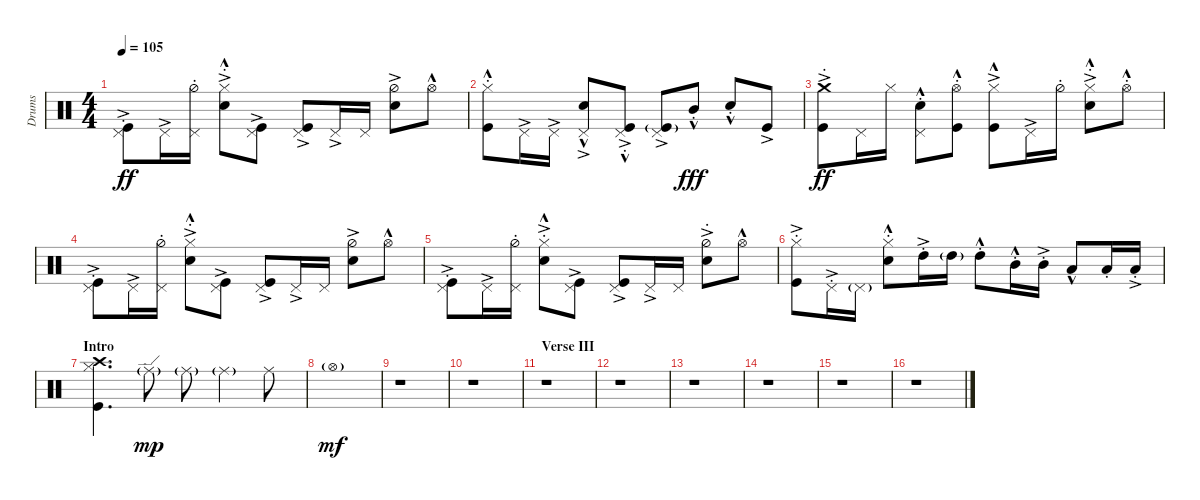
\defaultSystemsLayout 4
\otherSystemsTrackNameOrientation horizontal
\chordDiagramsInScore
\track ("Drumkit" "Drums") {instrument percussion}
\staff {score}
\articulation defaults
\ts (4 4)
\tempo 105
\clef neutral
\scale
0.5
\ks c
("Kick (hit)"{ac st} "Pedal Hi-Hat (hit)"{ac}).8{dy ff} "Pedal Hi-Hat (hit)"{ac}.16 ("Pedal Hi-Hat (hit)" "Hi-Hat (half)"{st}).16 ("Snare (hit) 2"{ac} "Hi-Hat (closed)"{hac st}).8 ("Kick (hit)"{ac} "Pedal Hi-Hat (hit)").8 ("Kick (hit)"{ac} "Pedal Hi-Hat (hit)").8 "Pedal Hi-Hat (hit)"{ac}.16 "Pedal Hi-Hat (hit)".16 ("Hi-Hat (half)"{ac} "Snare (hit) 2"{ac}).8 "Hi-Hat (open)"{hac}.8 |
\scale
0.5 ("Kick (hit)"{hac st} "Hi-Hat (closed)"{hac}).8 "Pedal Hi-Hat (hit)"{ac}.16 "Pedal Hi-Hat (hit)"{ac}.16 ("Pedal Hi-Hat (hit)"{hac} "Snare (hit) 2"{ac}).8 ("Pedal Hi-Hat (hit)"{ac} "Kick (hit)"{hac st}).8 ("Pedal Hi-Hat (hit)"{ac} "Kick (hit)"{g}).8 "Mid Tom (hit)"{hac st}.8{dy fff} "Snare (hit) 2"{hac st}.8 "Kick (hit)"{ac}.8 |
\scale
0.5 ("Crash medium (hit)"{ac} "Kick (hit)"{ac st}).8{dy ff} "Pedal Hi-Hat (hit)".16 "Hi-Hat (closed)".16 ("Snare (hit) 2"{hac st} "Pedal Hi-Hat (hit)"{hac}).8 ("Kick (hit)"{hac st} "Hi-Hat (open)"{hac st}).8 ("Kick (hit)"{ac} "Hi-Hat (closed)"{hac}).8 "Pedal Hi-Hat (hit)"{ac}.16 "Hi-Hat (half)"{st}.16 ("Hi-Hat (closed)"{ac} "Snare (hit) 2"{hac st}).8 "Hi-Hat (open)"{hac st}.8 |
\scale
0.5 ("Kick (hit)"{ac st} "Pedal Hi-Hat (hit)"{ac}).8 "Pedal Hi-Hat (hit)"{ac}.16 ("Pedal Hi-Hat (hit)" "Hi-Hat (half)"{st}).16 ("Snare (hit) 2"{ac} "Hi-Hat (closed)"{hac st}).8 ("Kick (hit)"{ac} "Pedal Hi-Hat (hit)").8 ("Kick (hit)"{ac} "Pedal Hi-Hat (hit)").8 "Pedal Hi-Hat (hit)"{ac}.16 "Pedal Hi-Hat (hit)".16 ("Hi-Hat (half)"{ac} "Snare (hit) 2"{ac}).8 "Hi-Hat (open)"{hac}.8 |
\scale
0.5 ("Kick (hit)"{ac st} "Pedal Hi-Hat (hit)"{ac}).8 "Pedal Hi-Hat (hit)"{ac}.16 ("Pedal Hi-Hat (hit)" "Hi-Hat (half)"{st}).16 ("Snare (hit) 2"{ac st} "Hi-Hat (closed)"{hac st}).8 ("Kick (hit)"{ac} "Pedal Hi-Hat (hit)").8 ("Kick (hit)"{ac} "Pedal Hi-Hat (hit)").8 "Pedal Hi-Hat (hit)"{ac}.16 "Pedal Hi-Hat (hit)".16 ("Hi-Hat (half)"{ac} "Snare (hit) 2"{ac st}).8 "Hi-Hat (open)"{hac}.8 |
\scale
0.5 ("Kick (hit)" "Hi-Hat (closed)"{ac st}).8 "Pedal Hi-Hat (hit)"{ac st}.16 "Pedal Hi-Hat (hit)"{g}.16 ("Snare (hit) 2"{hac st} "Hi-Hat (closed)"{hac st}).8 "High Tom (hit)"{ac st}.16 "High Tom (hit)"{g}.16 "High Tom (hit)"{hac st}.8 "Mid Tom (hit)"{hac st}.16 "Mid Tom (hit)"{ac st}.16 "Low Tom (hit)"{hac}.8 "Low Tom (hit)"{st}.16 "Low Tom (hit)"{ac st}.16 |
\section ("" "Intro")
\scale
0.5 ("Kick (hit)" "Hi-Hat (closed)" "Crash high (hit)").4{d} "Ride (edge)"{g}.8{dy mp} "Ride (middle)"{g}.8 "Ride (middle)"{g}.4 "Ride (middle)".8 |
\scale
0.5 "Hi-Hat (open)"{g}.1{dy mf} |
\scale
0.5 r.1 |
\scale
0.5 r.1 |
\section ("" "Verse III")
\scale
0.5 r.1 |
\scale
0.5 r.1 |
\scale
0.5 r.1 |
\scale
0.5 r.1 |
\scale
0.5 r.1 |
\scale
0.5 r.1
